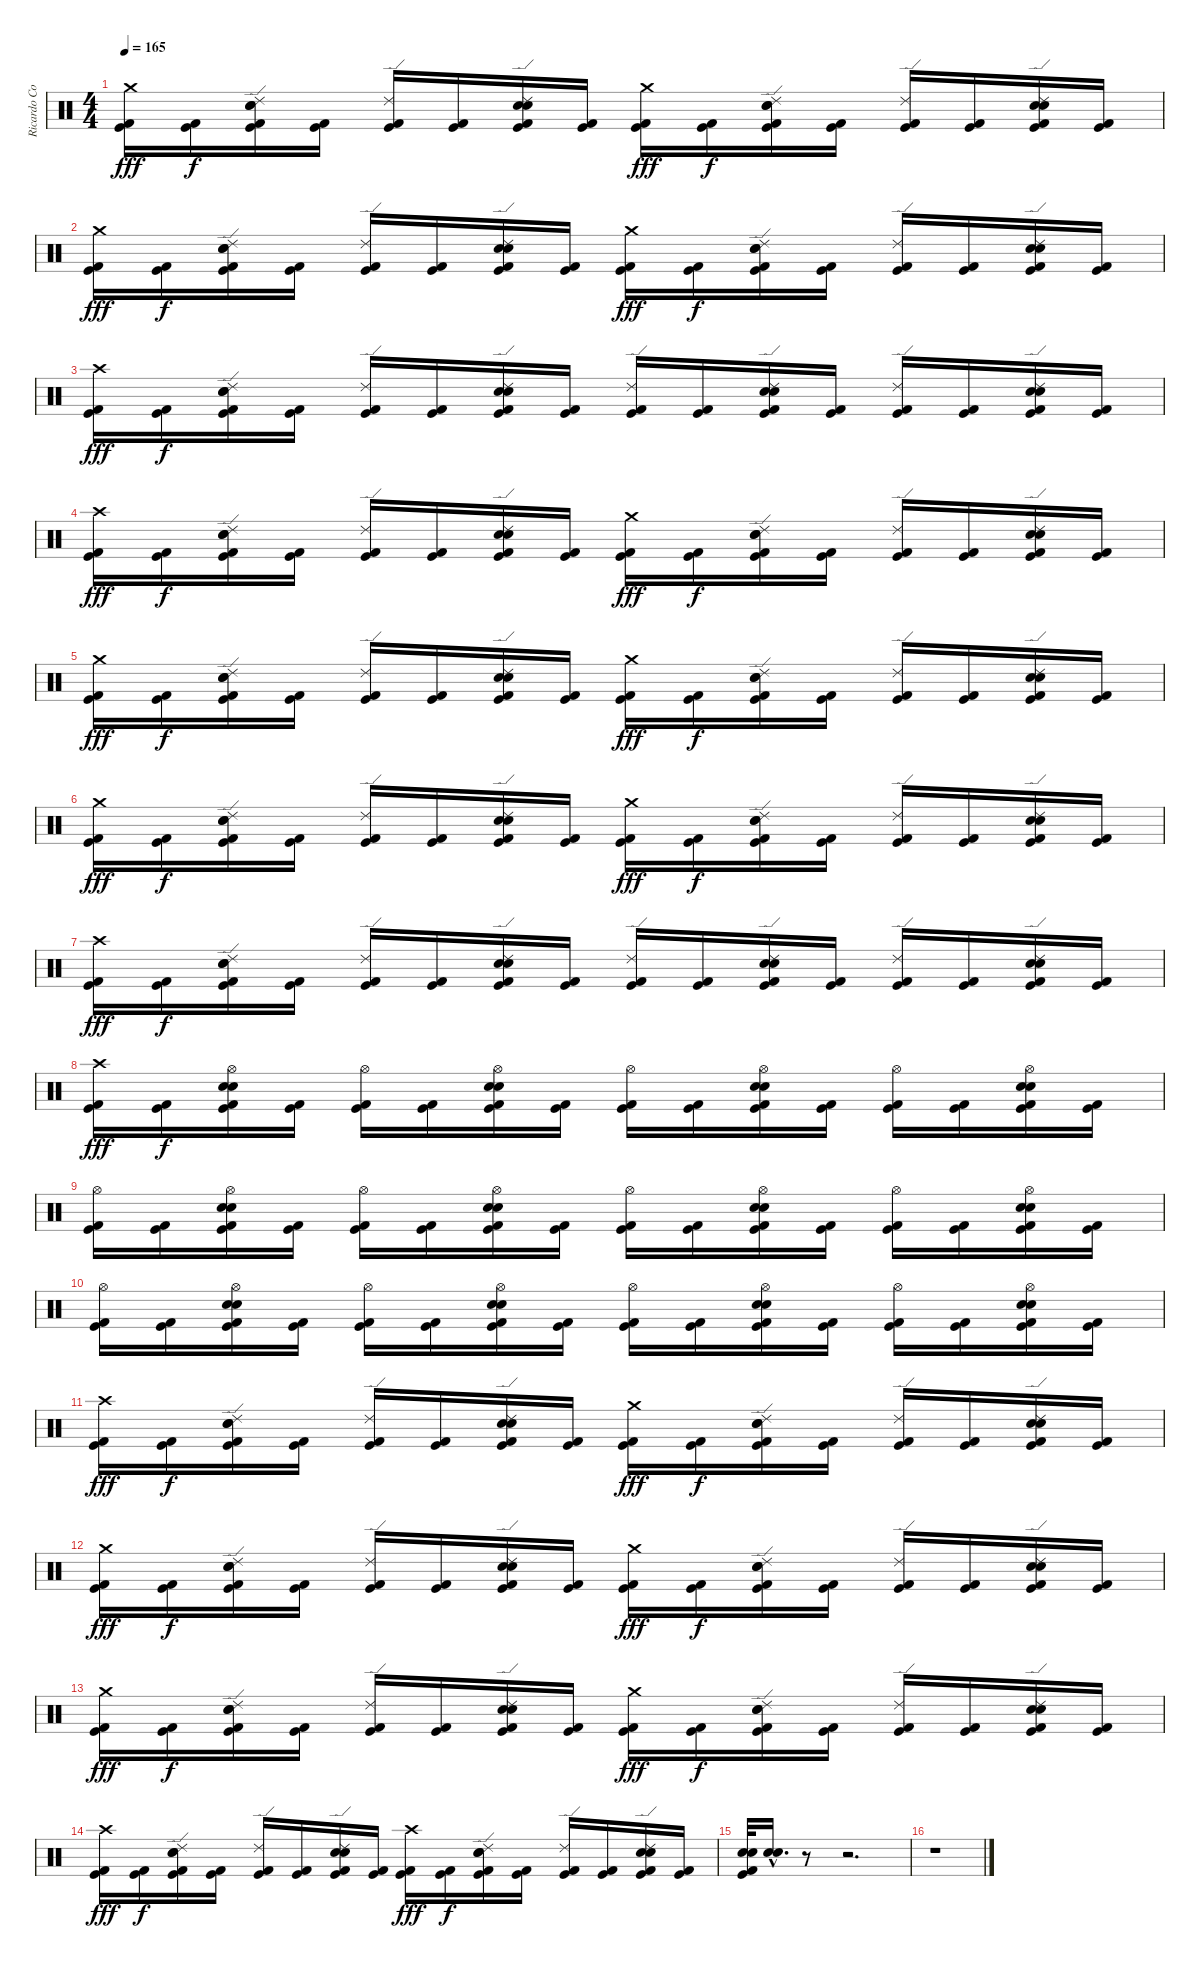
\track ("Ricardo Confessori" "Ricardo Co") {instrument percussion}
\staff {score}
\articulation defaults
\ts (4 4)
\tempo 165
\clef neutral
\ks c
("Crash medium (hit)" "Kick (hit) 2" "Kick (hit)").16{dy fff} ("Kick (hit) 2" "Kick (hit)").16{dy f} ("Ride (edge) 2" "Electric Snare (hit)" "Snare (hit) 2" "Kick (hit) 2" "Kick (hit)").16 ("Kick (hit) 2" "Kick (hit)").16 ("Ride (edge) 2" "Kick (hit) 2" "Kick (hit)").16 ("Kick (hit) 2" "Kick (hit)").16 ("Ride (edge) 2" "Electric Snare (hit)" "Snare (hit) 2" "Kick (hit) 2" "Kick (hit)").16 ("Kick (hit) 2" "Kick (hit)").16 ("Crash medium (hit)" "Kick (hit) 2" "Kick (hit)").16{dy fff} ("Kick (hit) 2" "Kick (hit)").16{dy f} ("Ride (edge) 2" "Electric Snare (hit)" "Snare (hit) 2" "Kick (hit) 2" "Kick (hit)").16 ("Kick (hit) 2" "Kick (hit)").16 ("Ride (edge) 2" "Kick (hit) 2" "Kick (hit)").16 ("Kick (hit) 2" "Kick (hit)").16 ("Ride (edge) 2" "Electric Snare (hit)" "Snare (hit) 2" "Kick (hit) 2" "Kick (hit)").16 ("Kick (hit) 2" "Kick (hit)").16 |
("Crash medium (hit)" "Kick (hit) 2" "Kick (hit)").16{dy fff} ("Kick (hit) 2" "Kick (hit)").16{dy f} ("Ride (edge) 2" "Electric Snare (hit)" "Snare (hit) 2" "Kick (hit) 2" "Kick (hit)").16 ("Kick (hit) 2" "Kick (hit)").16 ("Ride (edge) 2" "Kick (hit) 2" "Kick (hit)").16 ("Kick (hit) 2" "Kick (hit)").16 ("Ride (edge) 2" "Electric Snare (hit)" "Snare (hit) 2" "Kick (hit) 2" "Kick (hit)").16 ("Kick (hit) 2" "Kick (hit)").16 ("Crash medium (hit)" "Kick (hit) 2" "Kick (hit)").16{dy fff} ("Kick (hit) 2" "Kick (hit)").16{dy f} ("Ride (edge) 2" "Electric Snare (hit)" "Snare (hit) 2" "Kick (hit) 2" "Kick (hit)").16 ("Kick (hit) 2" "Kick (hit)").16 ("Ride (edge) 2" "Kick (hit) 2" "Kick (hit)").16 ("Kick (hit) 2" "Kick (hit)").16 ("Ride (edge) 2" "Electric Snare (hit)" "Snare (hit) 2" "Kick (hit) 2" "Kick (hit)").16 ("Kick (hit) 2" "Kick (hit)").16 |
("Crash high (hit)" "Kick (hit) 2" "Kick (hit)").16{dy fff} ("Kick (hit) 2" "Kick (hit)").16{dy f} ("Ride (edge) 2" "Electric Snare (hit)" "Snare (hit) 2" "Kick (hit) 2" "Kick (hit)").16 ("Kick (hit) 2" "Kick (hit)").16 ("Ride (edge) 2" "Kick (hit) 2" "Kick (hit)").16 ("Kick (hit) 2" "Kick (hit)").16 ("Ride (edge) 2" "Electric Snare (hit)" "Snare (hit) 2" "Kick (hit) 2" "Kick (hit)").16 ("Kick (hit) 2" "Kick (hit)").16 ("Ride (edge) 2" "Kick (hit) 2" "Kick (hit)").16 ("Kick (hit) 2" "Kick (hit)").16 ("Ride (edge) 2" "Electric Snare (hit)" "Snare (hit) 2" "Kick (hit) 2" "Kick (hit)").16 ("Kick (hit) 2" "Kick (hit)").16 ("Ride (edge) 2" "Kick (hit) 2" "Kick (hit)").16 ("Kick (hit) 2" "Kick (hit)").16 ("Ride (edge) 2" "Electric Snare (hit)" "Snare (hit) 2" "Kick (hit) 2" "Kick (hit)").16 ("Kick (hit) 2" "Kick (hit)").16 |
("Crash high (hit)" "Kick (hit) 2" "Kick (hit)").16{dy fff} ("Kick (hit) 2" "Kick (hit)").16{dy f} ("Ride (edge) 2" "Electric Snare (hit)" "Snare (hit) 2" "Kick (hit) 2" "Kick (hit)").16 ("Kick (hit) 2" "Kick (hit)").16 ("Ride (edge) 2" "Kick (hit) 2" "Kick (hit)").16 ("Kick (hit) 2" "Kick (hit)").16 ("Ride (edge) 2" "Electric Snare (hit)" "Snare (hit) 2" "Kick (hit) 2" "Kick (hit)").16 ("Kick (hit) 2" "Kick (hit)").16 ("Crash medium (hit)" "Kick (hit) 2" "Kick (hit)").16{dy fff} ("Kick (hit) 2" "Kick (hit)").16{dy f} ("Ride (edge) 2" "Electric Snare (hit)" "Snare (hit) 2" "Kick (hit) 2" "Kick (hit)").16 ("Kick (hit) 2" "Kick (hit)").16 ("Ride (edge) 2" "Kick (hit) 2" "Kick (hit)").16 ("Kick (hit) 2" "Kick (hit)").16 ("Ride (edge) 2" "Electric Snare (hit)" "Snare (hit) 2" "Kick (hit) 2" "Kick (hit)").16 ("Kick (hit) 2" "Kick (hit)").16 |
("Crash medium (hit)" "Kick (hit) 2" "Kick (hit)").16{dy fff} ("Kick (hit) 2" "Kick (hit)").16{dy f} ("Ride (edge) 2" "Electric Snare (hit)" "Snare (hit) 2" "Kick (hit) 2" "Kick (hit)").16 ("Kick (hit) 2" "Kick (hit)").16 ("Ride (edge) 2" "Kick (hit) 2" "Kick (hit)").16 ("Kick (hit) 2" "Kick (hit)").16 ("Ride (edge) 2" "Electric Snare (hit)" "Snare (hit) 2" "Kick (hit) 2" "Kick (hit)").16 ("Kick (hit) 2" "Kick (hit)").16 ("Crash medium (hit)" "Kick (hit) 2" "Kick (hit)").16{dy fff} ("Kick (hit) 2" "Kick (hit)").16{dy f} ("Ride (edge) 2" "Electric Snare (hit)" "Snare (hit) 2" "Kick (hit) 2" "Kick (hit)").16 ("Kick (hit) 2" "Kick (hit)").16 ("Ride (edge) 2" "Kick (hit) 2" "Kick (hit)").16 ("Kick (hit) 2" "Kick (hit)").16 ("Ride (edge) 2" "Electric Snare (hit)" "Snare (hit) 2" "Kick (hit) 2" "Kick (hit)").16 ("Kick (hit) 2" "Kick (hit)").16 |
("Crash medium (hit)" "Kick (hit) 2" "Kick (hit)").16{dy fff} ("Kick (hit) 2" "Kick (hit)").16{dy f} ("Ride (edge) 2" "Electric Snare (hit)" "Snare (hit) 2" "Kick (hit) 2" "Kick (hit)").16 ("Kick (hit) 2" "Kick (hit)").16 ("Ride (edge) 2" "Kick (hit) 2" "Kick (hit)").16 ("Kick (hit) 2" "Kick (hit)").16 ("Ride (edge) 2" "Electric Snare (hit)" "Snare (hit) 2" "Kick (hit) 2" "Kick (hit)").16 ("Kick (hit) 2" "Kick (hit)").16 ("Crash medium (hit)" "Kick (hit) 2" "Kick (hit)").16{dy fff} ("Kick (hit) 2" "Kick (hit)").16{dy f} ("Ride (edge) 2" "Electric Snare (hit)" "Snare (hit) 2" "Kick (hit) 2" "Kick (hit)").16 ("Kick (hit) 2" "Kick (hit)").16 ("Ride (edge) 2" "Kick (hit) 2" "Kick (hit)").16 ("Kick (hit) 2" "Kick (hit)").16 ("Ride (edge) 2" "Electric Snare (hit)" "Snare (hit) 2" "Kick (hit) 2" "Kick (hit)").16 ("Kick (hit) 2" "Kick (hit)").16 |
("Crash high (hit)" "Kick (hit) 2" "Kick (hit)").16{dy fff} ("Kick (hit) 2" "Kick (hit)").16{dy f} ("Ride (edge) 2" "Electric Snare (hit)" "Snare (hit) 2" "Kick (hit) 2" "Kick (hit)").16 ("Kick (hit) 2" "Kick (hit)").16 ("Ride (edge) 2" "Kick (hit) 2" "Kick (hit)").16 ("Kick (hit) 2" "Kick (hit)").16 ("Ride (edge) 2" "Electric Snare (hit)" "Snare (hit) 2" "Kick (hit) 2" "Kick (hit)").16 ("Kick (hit) 2" "Kick (hit)").16 ("Ride (edge) 2" "Kick (hit) 2" "Kick (hit)").16 ("Kick (hit) 2" "Kick (hit)").16 ("Ride (edge) 2" "Electric Snare (hit)" "Snare (hit) 2" "Kick (hit) 2" "Kick (hit)").16 ("Kick (hit) 2" "Kick (hit)").16 ("Ride (edge) 2" "Kick (hit) 2" "Kick (hit)").16 ("Kick (hit) 2" "Kick (hit)").16 ("Ride (edge) 2" "Electric Snare (hit)" "Snare (hit) 2" "Kick (hit) 2" "Kick (hit)").16 ("Kick (hit) 2" "Kick (hit)").16 |
("Crash high (hit)" "Kick (hit) 2" "Kick (hit)").16{dy fff} ("Kick (hit) 2" "Kick (hit)").16{dy f} ("Hi-Hat (open)" "Electric Snare (hit)" "Snare (hit) 2" "Kick (hit) 2" "Kick (hit)").16 ("Kick (hit) 2" "Kick (hit)").16 ("Hi-Hat (open)" "Kick (hit) 2" "Kick (hit)").16 ("Kick (hit) 2" "Kick (hit)").16 ("Hi-Hat (open)" "Electric Snare (hit)" "Snare (hit) 2" "Kick (hit) 2" "Kick (hit)").16 ("Kick (hit) 2" "Kick (hit)").16 ("Hi-Hat (open)" "Kick (hit) 2" "Kick (hit)").16 ("Kick (hit) 2" "Kick (hit)").16 ("Hi-Hat (open)" "Electric Snare (hit)" "Snare (hit) 2" "Kick (hit) 2" "Kick (hit)").16 ("Kick (hit) 2" "Kick (hit)").16 ("Hi-Hat (open)" "Kick (hit) 2" "Kick (hit)").16 ("Kick (hit) 2" "Kick (hit)").16 ("Hi-Hat (open)" "Electric Snare (hit)" "Snare (hit) 2" "Kick (hit) 2" "Kick (hit)").16 ("Kick (hit) 2" "Kick (hit)").16 |
("Hi-Hat (open)" "Kick (hit) 2" "Kick (hit)").16 ("Kick (hit) 2" "Kick (hit)").16 ("Hi-Hat (open)" "Electric Snare (hit)" "Snare (hit) 2" "Kick (hit) 2" "Kick (hit)").16 ("Kick (hit) 2" "Kick (hit)").16 ("Hi-Hat (open)" "Kick (hit) 2" "Kick (hit)").16 ("Kick (hit) 2" "Kick (hit)").16 ("Hi-Hat (open)" "Electric Snare (hit)" "Snare (hit) 2" "Kick (hit) 2" "Kick (hit)").16 ("Kick (hit) 2" "Kick (hit)").16 ("Hi-Hat (open)" "Kick (hit) 2" "Kick (hit)").16 ("Kick (hit) 2" "Kick (hit)").16 ("Hi-Hat (open)" "Electric Snare (hit)" "Snare (hit) 2" "Kick (hit) 2" "Kick (hit)").16 ("Kick (hit) 2" "Kick (hit)").16 ("Hi-Hat (open)" "Kick (hit) 2" "Kick (hit)").16 ("Kick (hit) 2" "Kick (hit)").16 ("Hi-Hat (open)" "Electric Snare (hit)" "Snare (hit) 2" "Kick (hit) 2" "Kick (hit)").16 ("Kick (hit) 2" "Kick (hit)").16 |
("Hi-Hat (open)" "Kick (hit) 2" "Kick (hit)").16 ("Kick (hit) 2" "Kick (hit)").16 ("Hi-Hat (open)" "Electric Snare (hit)" "Snare (hit) 2" "Kick (hit) 2" "Kick (hit)").16 ("Kick (hit) 2" "Kick (hit)").16 ("Hi-Hat (open)" "Kick (hit) 2" "Kick (hit)").16 ("Kick (hit) 2" "Kick (hit)").16 ("Hi-Hat (open)" "Electric Snare (hit)" "Snare (hit) 2" "Kick (hit) 2" "Kick (hit)").16 ("Kick (hit) 2" "Kick (hit)").16 ("Hi-Hat (open)" "Kick (hit) 2" "Kick (hit)").16 ("Kick (hit) 2" "Kick (hit)").16 ("Hi-Hat (open)" "Electric Snare (hit)" "Snare (hit) 2" "Kick (hit) 2" "Kick (hit)").16 ("Kick (hit) 2" "Kick (hit)").16 ("Hi-Hat (open)" "Kick (hit) 2" "Kick (hit)").16 ("Kick (hit) 2" "Kick (hit)").16 ("Hi-Hat (open)" "Electric Snare (hit)" "Snare (hit) 2" "Kick (hit) 2" "Kick (hit)").16 ("Kick (hit) 2" "Kick (hit)").16 |
("Crash high (hit)" "Kick (hit) 2" "Kick (hit)").16{dy fff} ("Kick (hit) 2" "Kick (hit)").16{dy f} ("Ride (edge) 2" "Electric Snare (hit)" "Snare (hit) 2" "Kick (hit) 2" "Kick (hit)").16 ("Kick (hit) 2" "Kick (hit)").16 ("Ride (edge) 2" "Kick (hit) 2" "Kick (hit)").16 ("Kick (hit) 2" "Kick (hit)").16 ("Ride (edge) 2" "Electric Snare (hit)" "Snare (hit) 2" "Kick (hit) 2" "Kick (hit)").16 ("Kick (hit) 2" "Kick (hit)").16 ("Crash medium (hit)" "Kick (hit) 2" "Kick (hit)").16{dy fff} ("Kick (hit) 2" "Kick (hit)").16{dy f} ("Ride (edge) 2" "Electric Snare (hit)" "Snare (hit) 2" "Kick (hit) 2" "Kick (hit)").16 ("Kick (hit) 2" "Kick (hit)").16 ("Ride (edge) 2" "Kick (hit) 2" "Kick (hit)").16 ("Kick (hit) 2" "Kick (hit)").16 ("Ride (edge) 2" "Electric Snare (hit)" "Snare (hit) 2" "Kick (hit) 2" "Kick (hit)").16 ("Kick (hit) 2" "Kick (hit)").16 |
("Crash medium (hit)" "Kick (hit) 2" "Kick (hit)").16{dy fff} ("Kick (hit) 2" "Kick (hit)").16{dy f} ("Ride (edge) 2" "Electric Snare (hit)" "Snare (hit) 2" "Kick (hit) 2" "Kick (hit)").16 ("Kick (hit) 2" "Kick (hit)").16 ("Ride (edge) 2" "Kick (hit) 2" "Kick (hit)").16 ("Kick (hit) 2" "Kick (hit)").16 ("Ride (edge) 2" "Electric Snare (hit)" "Snare (hit) 2" "Kick (hit) 2" "Kick (hit)").16 ("Kick (hit) 2" "Kick (hit)").16 ("Crash medium (hit)" "Kick (hit) 2" "Kick (hit)").16{dy fff} ("Kick (hit) 2" "Kick (hit)").16{dy f} ("Ride (edge) 2" "Electric Snare (hit)" "Snare (hit) 2" "Kick (hit) 2" "Kick (hit)").16 ("Kick (hit) 2" "Kick (hit)").16 ("Ride (edge) 2" "Kick (hit) 2" "Kick (hit)").16 ("Kick (hit) 2" "Kick (hit)").16 ("Ride (edge) 2" "Electric Snare (hit)" "Snare (hit) 2" "Kick (hit) 2" "Kick (hit)").16 ("Kick (hit) 2" "Kick (hit)").16 |
("Crash medium (hit)" "Kick (hit) 2" "Kick (hit)").16{dy fff} ("Kick (hit) 2" "Kick (hit)").16{dy f} ("Ride (edge) 2" "Electric Snare (hit)" "Snare (hit) 2" "Kick (hit) 2" "Kick (hit)").16 ("Kick (hit) 2" "Kick (hit)").16 ("Ride (edge) 2" "Kick (hit) 2" "Kick (hit)").16 ("Kick (hit) 2" "Kick (hit)").16 ("Ride (edge) 2" "Electric Snare (hit)" "Snare (hit) 2" "Kick (hit) 2" "Kick (hit)").16 ("Kick (hit) 2" "Kick (hit)").16 ("Crash medium (hit)" "Kick (hit) 2" "Kick (hit)").16{dy fff} ("Kick (hit) 2" "Kick (hit)").16{dy f} ("Ride (edge) 2" "Electric Snare (hit)" "Snare (hit) 2" "Kick (hit) 2" "Kick (hit)").16 ("Kick (hit) 2" "Kick (hit)").16 ("Ride (edge) 2" "Kick (hit) 2" "Kick (hit)").16 ("Kick (hit) 2" "Kick (hit)").16 ("Ride (edge) 2" "Electric Snare (hit)" "Snare (hit) 2" "Kick (hit) 2" "Kick (hit)").16 ("Kick (hit) 2" "Kick (hit)").16 |
("Crash high (hit)" "Kick (hit) 2" "Kick (hit)").16{dy fff} ("Kick (hit) 2" "Kick (hit)").16{dy f} ("Ride (edge) 2" "Electric Snare (hit)" "Snare (hit) 2" "Kick (hit) 2" "Kick (hit)").16 ("Kick (hit) 2" "Kick (hit)").16 ("Ride (edge) 2" "Kick (hit) 2" "Kick (hit)").16 ("Kick (hit) 2" "Kick (hit)").16 ("Ride (edge) 2" "Electric Snare (hit)" "Snare (hit) 2" "Kick (hit) 2" "Kick (hit)").16 ("Kick (hit) 2" "Kick (hit)").16 ("Crash high (hit)" "Kick (hit) 2" "Kick (hit)").16{dy fff} ("Kick (hit) 2" "Kick (hit)").16{dy f} ("Ride (edge) 2" "Electric Snare (hit)" "Snare (hit) 2" "Kick (hit) 2" "Kick (hit)").16 ("Kick (hit) 2" "Kick (hit)").16 ("Ride (edge) 2" "Kick (hit) 2" "Kick (hit)").16 ("Kick (hit) 2" "Kick (hit)").16 ("Ride (edge) 2" "Electric Snare (hit)" "Snare (hit) 2" "Kick (hit) 2" "Kick (hit)").16 ("Kick (hit) 2" "Kick (hit)").16 |
("Electric Snare (hit)" "Snare (hit) 2" "Kick (hit) 2" "Kick (hit)").32 ("Electric Snare (hit)"{hac} "Snare (hit) 2"{hac}).16{d} r.8 r.2{d} |
r.1
